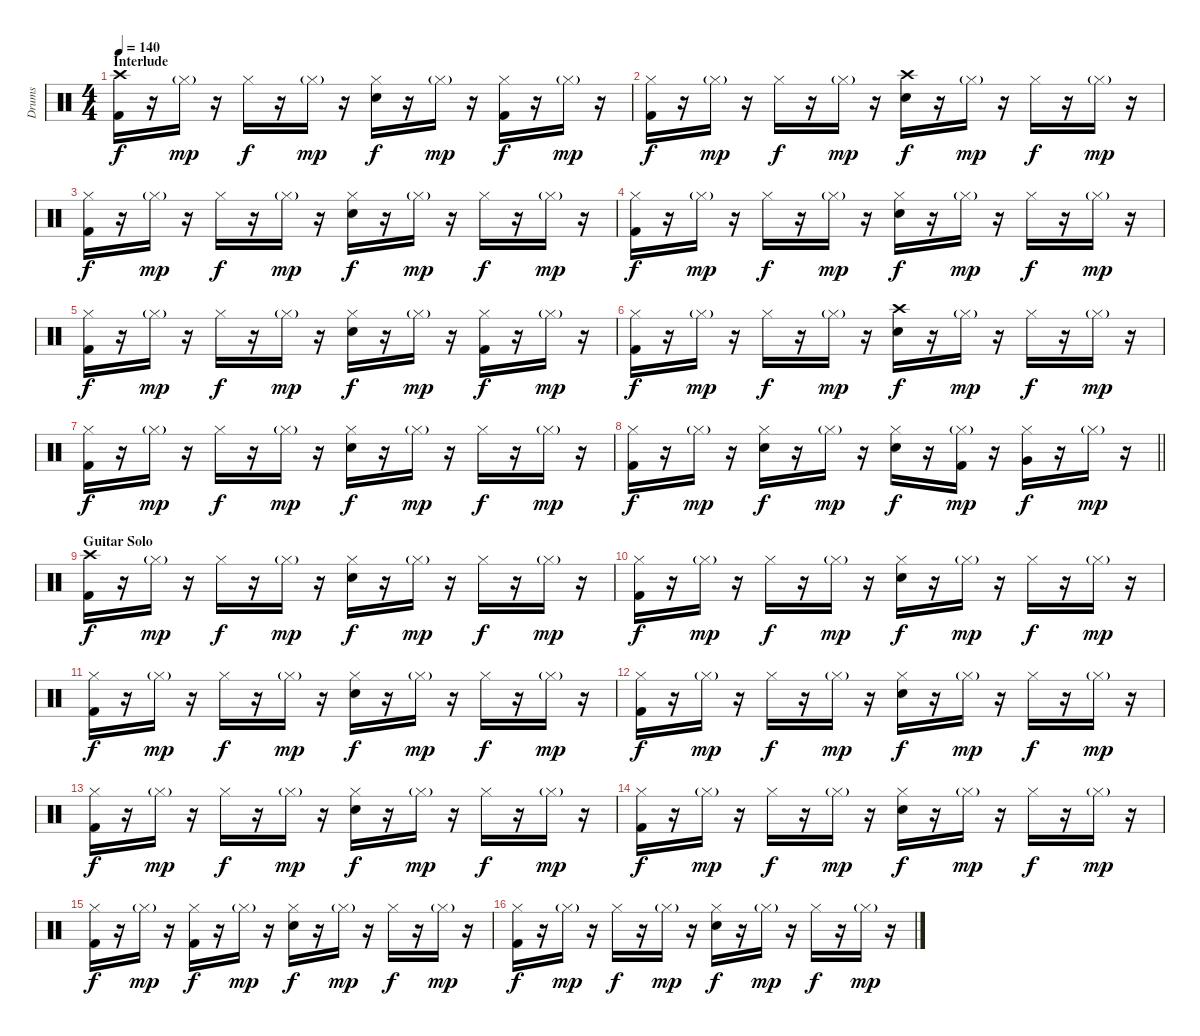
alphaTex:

\track ("Drums" "Drums") {instrument percussion}
\staff {score}
\articulation defaults
\ts (4 4)
\section ("" "Interlude")
\tempo 140
\clef neutral
\ks c
("Crash high (hit)" "Kick (hit) 2").16{dy f} r.16 "Hi-Hat (closed)"{g}.16{dy mp} r.16 "Hi-Hat (closed)".16{dy f} r.16 "Hi-Hat (closed)"{g}.16{dy mp} r.16 ("Hi-Hat (closed)" "Snare (hit) 2").16{dy f} r.16 "Hi-Hat (closed)"{g}.16{dy mp} r.16 ("Hi-Hat (closed)" "Kick (hit) 2").16{dy f} r.16 "Hi-Hat (closed)"{g}.16{dy mp} r.16 |
("Hi-Hat (closed)" "Kick (hit) 2").16{dy f} r.16 "Hi-Hat (closed)"{g}.16{dy mp} r.16 "Hi-Hat (closed)".16{dy f} r.16 "Hi-Hat (closed)"{g}.16{dy mp} r.16 ("Crash high (hit)" "Snare (hit) 2").16{dy f} r.16 "Hi-Hat (closed)"{g}.16{dy mp} r.16 "Hi-Hat (closed)".16{dy f} r.16 "Hi-Hat (closed)"{g}.16{dy mp} r.16 |
("Hi-Hat (closed)" "Kick (hit) 2").16{dy f} r.16 "Hi-Hat (closed)"{g}.16{dy mp} r.16 "Hi-Hat (closed)".16{dy f} r.16 "Hi-Hat (closed)"{g}.16{dy mp} r.16 ("Hi-Hat (closed)" "Snare (hit) 2").16{dy f} r.16 "Hi-Hat (closed)"{g}.16{dy mp} r.16 "Hi-Hat (closed)".16{dy f} r.16 "Hi-Hat (closed)"{g}.16{dy mp} r.16 |
("Hi-Hat (closed)" "Kick (hit) 2").16{dy f} r.16 "Hi-Hat (closed)"{g}.16{dy mp} r.16 "Hi-Hat (closed)".16{dy f} r.16 "Hi-Hat (closed)"{g}.16{dy mp} r.16 ("Hi-Hat (closed)" "Snare (hit) 2").16{dy f} r.16 "Hi-Hat (closed)"{g}.16{dy mp} r.16 "Hi-Hat (closed)".16{dy f} r.16 "Hi-Hat (closed)"{g}.16{dy mp} r.16 |
("Hi-Hat (closed)" "Kick (hit) 2").16{dy f} r.16 "Hi-Hat (closed)"{g}.16{dy mp} r.16 "Hi-Hat (closed)".16{dy f} r.16 "Hi-Hat (closed)"{g}.16{dy mp} r.16 ("Hi-Hat (closed)" "Snare (hit) 2").16{dy f} r.16 "Hi-Hat (closed)"{g}.16{dy mp} r.16 ("Hi-Hat (closed)" "Kick (hit) 2").16{dy f} r.16 "Hi-Hat (closed)"{g}.16{dy mp} r.16 |
("Hi-Hat (closed)" "Kick (hit) 2").16{dy f} r.16 "Hi-Hat (closed)"{g}.16{dy mp} r.16 "Hi-Hat (closed)".16{dy f} r.16 "Hi-Hat (closed)"{g}.16{dy mp} r.16 ("Crash high (hit)" "Snare (hit) 2").16{dy f} r.16 "Hi-Hat (closed)"{g}.16{dy mp} r.16 "Hi-Hat (closed)".16{dy f} r.16 "Hi-Hat (closed)"{g}.16{dy mp} r.16 |
("Hi-Hat (closed)" "Kick (hit) 2").16{dy f} r.16 "Hi-Hat (closed)"{g}.16{dy mp} r.16 "Hi-Hat (closed)".16{dy f} r.16 "Hi-Hat (closed)"{g}.16{dy mp} r.16 ("Hi-Hat (closed)" "Snare (hit) 2").16{dy f} r.16 "Hi-Hat (closed)"{g}.16{dy mp} r.16 "Hi-Hat (closed)".16{dy f} r.16 "Hi-Hat (closed)"{g}.16{dy mp} r.16 |
\barLineRight lightlight
("Hi-Hat (closed)" "Kick (hit) 2").16{dy f} r.16 "Hi-Hat (closed)"{g}.16{dy mp} r.16 ("Hi-Hat (closed)" "Snare (hit) 2").16{dy f} r.16 "Hi-Hat (closed)"{g}.16{dy mp} r.16 ("Hi-Hat (closed)" "Snare (hit) 2").16{dy f} r.16 ("Hi-Hat (closed)"{g} "Kick (hit) 2").16{dy mp} r.16 ("Hi-Hat (closed)" "Very Low Tom (hit)").16{dy f} r.16 "Hi-Hat (closed)"{g}.16{dy mp} r.16 |
\section ("" "Guitar Solo")
("Crash high (hit)" "Kick (hit) 2").16{dy f} r.16 "Hi-Hat (closed)"{g}.16{dy mp} r.16 "Hi-Hat (closed)".16{dy f} r.16 "Hi-Hat (closed)"{g}.16{dy mp} r.16 ("Hi-Hat (closed)" "Snare (hit) 2").16{dy f} r.16 "Hi-Hat (closed)"{g}.16{dy mp} r.16 "Hi-Hat (closed)".16{dy f} r.16 "Hi-Hat (closed)"{g}.16{dy mp} r.16 |
("Hi-Hat (closed)" "Kick (hit) 2").16{dy f} r.16 "Hi-Hat (closed)"{g}.16{dy mp} r.16 "Hi-Hat (closed)".16{dy f} r.16 "Hi-Hat (closed)"{g}.16{dy mp} r.16 ("Hi-Hat (closed)" "Snare (hit) 2").16{dy f} r.16 "Hi-Hat (closed)"{g}.16{dy mp} r.16 "Hi-Hat (closed)".16{dy f} r.16 "Hi-Hat (closed)"{g}.16{dy mp} r.16 |
("Hi-Hat (closed)" "Kick (hit) 2").16{dy f} r.16 "Hi-Hat (closed)"{g}.16{dy mp} r.16 "Hi-Hat (closed)".16{dy f} r.16 "Hi-Hat (closed)"{g}.16{dy mp} r.16 ("Hi-Hat (closed)" "Snare (hit) 2").16{dy f} r.16 "Hi-Hat (closed)"{g}.16{dy mp} r.16 "Hi-Hat (closed)".16{dy f} r.16 "Hi-Hat (closed)"{g}.16{dy mp} r.16 |
("Hi-Hat (closed)" "Kick (hit) 2").16{dy f} r.16 "Hi-Hat (closed)"{g}.16{dy mp} r.16 "Hi-Hat (closed)".16{dy f} r.16 "Hi-Hat (closed)"{g}.16{dy mp} r.16 ("Hi-Hat (closed)" "Snare (hit) 2").16{dy f} r.16 "Hi-Hat (closed)"{g}.16{dy mp} r.16 "Hi-Hat (closed)".16{dy f} r.16 "Hi-Hat (closed)"{g}.16{dy mp} r.16 |
("Hi-Hat (closed)" "Kick (hit) 2").16{dy f} r.16 "Hi-Hat (closed)"{g}.16{dy mp} r.16 "Hi-Hat (closed)".16{dy f} r.16 "Hi-Hat (closed)"{g}.16{dy mp} r.16 ("Hi-Hat (closed)" "Snare (hit) 2").16{dy f} r.16 "Hi-Hat (closed)"{g}.16{dy mp} r.16 "Hi-Hat (closed)".16{dy f} r.16 "Hi-Hat (closed)"{g}.16{dy mp} r.16 |
("Hi-Hat (closed)" "Kick (hit) 2").16{dy f} r.16 "Hi-Hat (closed)"{g}.16{dy mp} r.16 "Hi-Hat (closed)".16{dy f} r.16 "Hi-Hat (closed)"{g}.16{dy mp} r.16 ("Hi-Hat (closed)" "Snare (hit) 2").16{dy f} r.16 "Hi-Hat (closed)"{g}.16{dy mp} r.16 "Hi-Hat (closed)".16{dy f} r.16 "Hi-Hat (closed)"{g}.16{dy mp} r.16 |
("Hi-Hat (closed)" "Kick (hit) 2").16{dy f} r.16 "Hi-Hat (closed)"{g}.16{dy mp} r.16 ("Hi-Hat (closed)" "Kick (hit) 2").16{dy f} r.16 "Hi-Hat (closed)"{g}.16{dy mp} r.16 ("Hi-Hat (closed)" "Snare (hit) 2").16{dy f} r.16 "Hi-Hat (closed)"{g}.16{dy mp} r.16 "Hi-Hat (closed)".16{dy f} r.16 "Hi-Hat (closed)"{g}.16{dy mp} r.16 |
("Hi-Hat (closed)" "Kick (hit) 2").16{dy f} r.16 "Hi-Hat (closed)"{g}.16{dy mp} r.16 "Hi-Hat (closed)".16{dy f} r.16 "Hi-Hat (closed)"{g}.16{dy mp} r.16 ("Hi-Hat (closed)" "Snare (hit) 2").16{dy f} r.16 "Hi-Hat (closed)"{g}.16{dy mp} r.16 "Hi-Hat (closed)".16{dy f} r.16 "Hi-Hat (closed)"{g}.16{dy mp} r.16
